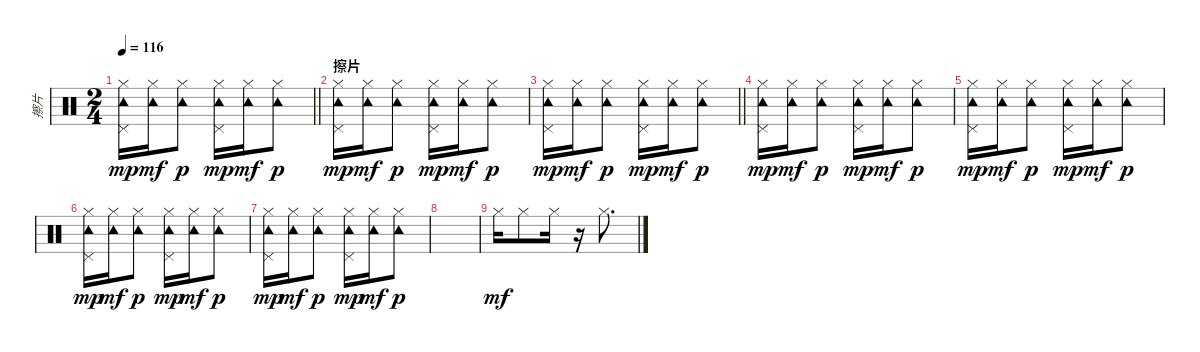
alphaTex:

\track ("擦片" "擦片") {instrument percussion}
\staff {score}
\articulation defaults
\ts (2 4)
\tempo 116
\clef neutral
\barLineRight lightlight
\ks c
("Hi-Hat (closed)" "Tambourine (hit)" "Pedal Hi-Hat (hit)").16{dy mp} ("Hi-Hat (closed)" "Tambourine (hit)").16{dy mf} ("Hi-Hat (closed)" "Tambourine (hit)").8{dy p} ("Hi-Hat (closed)" "Tambourine (hit)" "Pedal Hi-Hat (hit)").16{dy mp} ("Hi-Hat (closed)" "Tambourine (hit)").16{dy mf} ("Hi-Hat (closed)" "Tambourine (hit)").8{dy p} |
\section ("" "擦片")
("Hi-Hat (closed)" "Tambourine (hit)" "Pedal Hi-Hat (hit)").16{dy mp} ("Hi-Hat (closed)" "Tambourine (hit)").16{dy mf} ("Hi-Hat (closed)" "Tambourine (hit)").8{dy p} ("Hi-Hat (closed)" "Tambourine (hit)" "Pedal Hi-Hat (hit)").16{dy mp} ("Hi-Hat (closed)" "Tambourine (hit)").16{dy mf} ("Hi-Hat (closed)" "Tambourine (hit)").8{dy p} |
\barLineRight lightlight
("Hi-Hat (closed)" "Tambourine (hit)" "Pedal Hi-Hat (hit)").16{dy mp} ("Hi-Hat (closed)" "Tambourine (hit)").16{dy mf} ("Hi-Hat (closed)" "Tambourine (hit)").8{dy p} ("Hi-Hat (closed)" "Tambourine (hit)" "Pedal Hi-Hat (hit)").16{dy mp} ("Hi-Hat (closed)" "Tambourine (hit)").16{dy mf} ("Hi-Hat (closed)" "Tambourine (hit)").8{dy p} |
("Hi-Hat (closed)" "Tambourine (hit)" "Pedal Hi-Hat (hit)").16{dy mp} ("Hi-Hat (closed)" "Tambourine (hit)").16{dy mf} ("Hi-Hat (closed)" "Tambourine (hit)").8{dy p} ("Hi-Hat (closed)" "Tambourine (hit)" "Pedal Hi-Hat (hit)").16{dy mp} ("Hi-Hat (closed)" "Tambourine (hit)").16{dy mf} ("Hi-Hat (closed)" "Tambourine (hit)").8{dy p} |
("Hi-Hat (closed)" "Tambourine (hit)" "Pedal Hi-Hat (hit)").16{dy mp} ("Hi-Hat (closed)" "Tambourine (hit)").16{dy mf} ("Hi-Hat (closed)" "Tambourine (hit)").8{dy p} ("Hi-Hat (closed)" "Tambourine (hit)" "Pedal Hi-Hat (hit)").16{dy mp} ("Hi-Hat (closed)" "Tambourine (hit)").16{dy mf} ("Hi-Hat (closed)" "Tambourine (hit)").8{dy p} |
("Hi-Hat (closed)" "Tambourine (hit)" "Pedal Hi-Hat (hit)").16{dy mp} ("Hi-Hat (closed)" "Tambourine (hit)").16{dy mf} ("Hi-Hat (closed)" "Tambourine (hit)").8{dy p} ("Hi-Hat (closed)" "Tambourine (hit)" "Pedal Hi-Hat (hit)").16{dy mp} ("Hi-Hat (closed)" "Tambourine (hit)").16{dy mf} ("Hi-Hat (closed)" "Tambourine (hit)").8{dy p} |
("Hi-Hat (closed)" "Tambourine (hit)" "Pedal Hi-Hat (hit)").16{dy mp} ("Hi-Hat (closed)" "Tambourine (hit)").16{dy mf} ("Hi-Hat (closed)" "Tambourine (hit)").8{dy p} ("Hi-Hat (closed)" "Tambourine (hit)" "Pedal Hi-Hat (hit)").16{dy mp} ("Hi-Hat (closed)" "Tambourine (hit)").16{dy mf} ("Hi-Hat (closed)" "Tambourine (hit)").8{dy p} |
|
"Hi-Hat (closed)".16{dy mf} "Hi-Hat (closed)".8 "Hi-Hat (closed)".16 r.16 "Hi-Hat (closed)".8{d}
